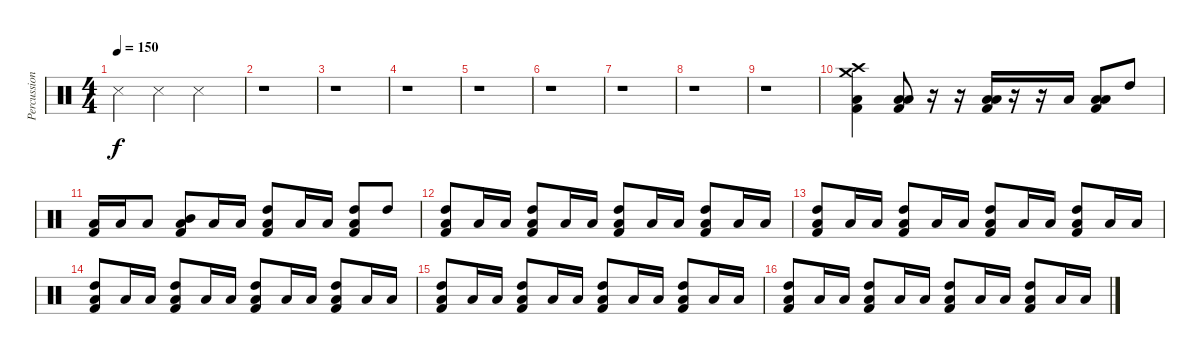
\track ("Percussions" "Percussion") {instrument percussion}
\staff {score}
\articulation defaults
\ts (4 4)
\tempo 150
\clef neutral
\ks c "Metronome (hit)".4{dy f} "Metronome (hit)".4 "Metronome (hit)".2
|
r.1 |
r.1 |
r.1 |
r.1 |
r.1 |
r.1 |
r.1 |
r.1 |
("Kick (hit) 2" "Low Floor Tom (hit)" "Crash medium (hit)" "Crash high (hit)").4 ("Kick (hit) 2" "Low Floor Tom (hit)" "Low Tom (hit)").8 r.16 r.16 ("Low Floor Tom (hit)" "Kick (hit) 2" "Low Tom (hit)").16 r.16 r.16 "Low Tom (hit)".16 ("Kick (hit) 2" "Low Floor Tom (hit)" "Low Tom (hit)").8 "High Tom (hit)".8 |
("Kick (hit) 2" "Low Floor Tom (hit)").16 "Low Tom (hit)".16 "Low Tom (hit)".8 ("Kick (hit) 2" "Low Floor Tom (hit)" "Mid Tom (hit)").8 "Low Tom (hit)".16 "Low Tom (hit)".16 ("Kick (hit) 2" "Low Floor Tom (hit)" "High Tom (hit)").8 "Low Tom (hit)".16 "Low Tom (hit)".16 ("Kick (hit) 2" "Low Floor Tom (hit)" "High Tom (hit)").8 "High Tom (hit)".8 |
("Kick (hit) 2" "Low Floor Tom (hit)" "High Tom (hit)").8 "Low Tom (hit)".16 "Low Tom (hit)".16 ("Kick (hit) 2" "Low Floor Tom (hit)" "High Tom (hit)").8 "Low Tom (hit)".16 "Low Tom (hit)".16 ("Kick (hit) 2" "Low Floor Tom (hit)" "High Tom (hit)").8 "Low Tom (hit)".16 "Low Tom (hit)".16 ("Kick (hit) 2" "Low Floor Tom (hit)" "High Tom (hit)").8 "Low Tom (hit)".16 "Low Tom (hit)".16 |
("Kick (hit) 2" "Low Floor Tom (hit)" "High Tom (hit)").8 "Low Tom (hit)".16 "Low Tom (hit)".16 ("Kick (hit) 2" "Low Floor Tom (hit)" "High Tom (hit)").8 "Low Tom (hit)".16 "Low Tom (hit)".16 ("Kick (hit) 2" "Low Floor Tom (hit)" "High Tom (hit)").8 "Low Tom (hit)".16 "Low Tom (hit)".16 ("Kick (hit) 2" "Low Floor Tom (hit)" "High Tom (hit)").8 "Low Tom (hit)".16 "Low Tom (hit)".16 |
("Kick (hit) 2" "Low Floor Tom (hit)" "High Tom (hit)").8 "Low Tom (hit)".16 "Low Tom (hit)".16 ("Kick (hit) 2" "Low Floor Tom (hit)" "High Tom (hit)").8 "Low Tom (hit)".16 "Low Tom (hit)".16 ("Kick (hit) 2" "Low Floor Tom (hit)" "High Tom (hit)").8 "Low Tom (hit)".16 "Low Tom (hit)".16 ("Kick (hit) 2" "Low Floor Tom (hit)" "High Tom (hit)").8 "Low Tom (hit)".16 "Low Tom (hit)".16 |
("Kick (hit) 2" "Low Floor Tom (hit)" "High Tom (hit)").8 "Low Tom (hit)".16 "Low Tom (hit)".16 ("Kick (hit) 2" "Low Floor Tom (hit)" "High Tom (hit)").8 "Low Tom (hit)".16 "Low Tom (hit)".16 ("Kick (hit) 2" "Low Floor Tom (hit)" "High Tom (hit)").8 "Low Tom (hit)".16 "Low Tom (hit)".16 ("Kick (hit) 2" "Low Floor Tom (hit)" "High Tom (hit)").8 "Low Tom (hit)".16 "Low Tom (hit)".16 |
("Kick (hit) 2" "Low Floor Tom (hit)" "High Tom (hit)").8 "Low Tom (hit)".16 "Low Tom (hit)".16 ("Kick (hit) 2" "Low Floor Tom (hit)" "High Tom (hit)").8 "Low Tom (hit)".16 "Low Tom (hit)".16 ("Kick (hit) 2" "Low Floor Tom (hit)" "High Tom (hit)").8 "Low Tom (hit)".16 "Low Tom (hit)".16 ("Kick (hit) 2" "Low Floor Tom (hit)" "High Tom (hit)").8 "Low Tom (hit)".16 "Low Tom (hit)".16
